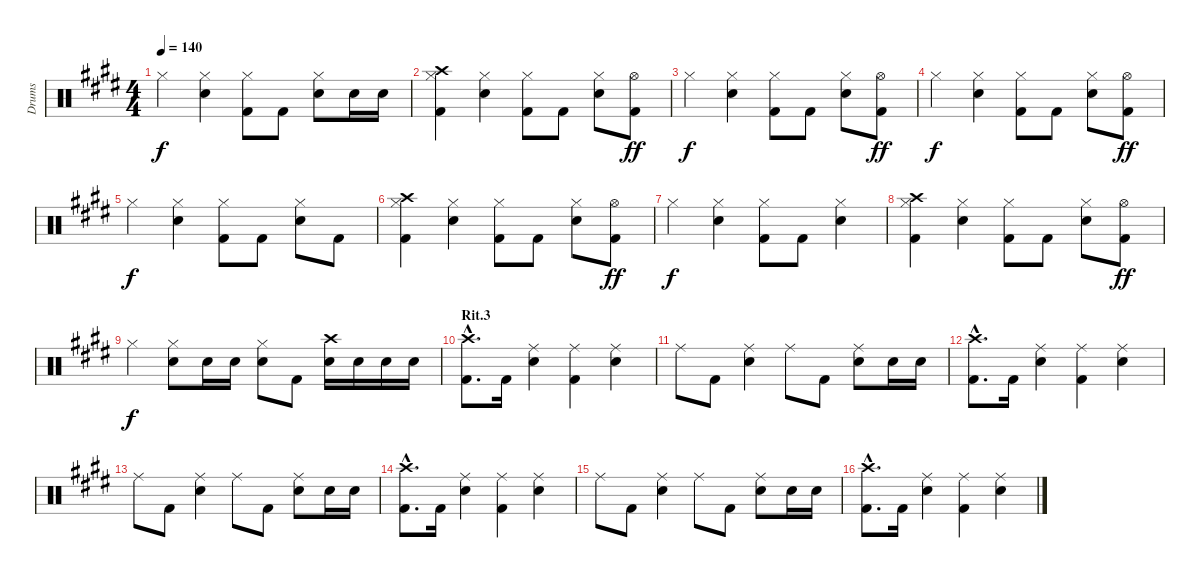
\track ("Drums" "Drums") {instrument percussion}
\staff {score}
\articulation defaults
\ts (4 4)
\tempo 140
\clef neutral
\ks c#minor "Hi-Hat (closed)".4{dy f}
("Hi-Hat (closed)" "Snare (hit) 2").4 ("Hi-Hat (closed)" "Kick (hit) 2").8 "Kick (hit) 2".8 ("Hi-Hat (closed)" "Snare (hit) 2").8 "Snare (hit) 2".16 "Snare (hit) 2".16 |
("Hi-Hat (closed)" "Crash high (hit)" "Kick (hit) 2").4 ("Hi-Hat (closed)" "Snare (hit) 2").4 ("Hi-Hat (closed)" "Kick (hit) 2").8 "Kick (hit) 2".8 ("Hi-Hat (closed)" "Snare (hit) 2").8 ("Hi-Hat (open)" "Kick (hit) 2").8{dy ff} |
"Hi-Hat (closed)".4{dy f} ("Hi-Hat (closed)" "Snare (hit) 2").4 ("Hi-Hat (closed)" "Kick (hit) 2").8 "Kick (hit) 2".8 ("Hi-Hat (closed)" "Snare (hit) 2").8 ("Hi-Hat (open)" "Kick (hit) 2").8{dy ff} |
"Hi-Hat (closed)".4{dy f} ("Hi-Hat (closed)" "Snare (hit) 2").4 ("Hi-Hat (closed)" "Kick (hit) 2").8 "Kick (hit) 2".8 ("Hi-Hat (closed)" "Snare (hit) 2").8 ("Hi-Hat (open)" "Kick (hit) 2").8{dy ff} |
"Hi-Hat (closed)".4{dy f} ("Hi-Hat (closed)" "Snare (hit) 2").4 ("Hi-Hat (closed)" "Kick (hit) 2").8 "Kick (hit) 2".8 ("Hi-Hat (closed)" "Snare (hit) 2").8 "Kick (hit) 2".8 |
("Hi-Hat (closed)" "Crash high (hit)" "Kick (hit) 2").4 ("Hi-Hat (closed)" "Snare (hit) 2").4 ("Hi-Hat (closed)" "Kick (hit) 2").8 "Kick (hit) 2".8 ("Hi-Hat (closed)" "Snare (hit) 2").8 ("Hi-Hat (open)" "Kick (hit) 2").8{dy ff} |
"Hi-Hat (closed)".4{dy f} ("Hi-Hat (closed)" "Snare (hit) 2").4 ("Hi-Hat (closed)" "Kick (hit) 2").8 "Kick (hit) 2".8 ("Hi-Hat (closed)" "Snare (hit) 2").4 |
("Hi-Hat (closed)" "Crash high (hit)" "Kick (hit) 2").4 ("Hi-Hat (closed)" "Snare (hit) 2").4 ("Hi-Hat (closed)" "Kick (hit) 2").8 "Kick (hit) 2".8 ("Hi-Hat (closed)" "Snare (hit) 2").8 ("Hi-Hat (open)" "Kick (hit) 2").8{dy ff} |
"Hi-Hat (closed)".4{dy f} ("Hi-Hat (closed)" "Snare (hit) 2").8 "Snare (hit) 2".16 "Snare (hit) 2".16 ("Hi-Hat (closed)" "Snare (hit) 2").8 "Kick (hit) 2".8 ("Crash high (hit)" "Snare (hit) 2").16 "Snare (hit) 2".16 "Snare (hit) 2".16 "Snare (hit) 2".16 |
\section ("" "Rit.3")
("Crash high (hit)" "Kick (hit) 2"{hac}).8{d} "Kick (hit) 2".16 ("Ride (middle)" "Snare (hit) 2").4 ("Ride (middle)" "Kick (hit) 2").4 ("Ride (middle)" "Snare (hit) 2").4 |
"Ride (middle)".8 "Kick (hit) 2".8 ("Ride (middle)" "Snare (hit) 2").4 "Ride (middle)".8 "Kick (hit) 2".8 ("Ride (middle)" "Snare (hit) 2").8 "Snare (hit) 2".16 "Snare (hit) 2".16 |
("Crash high (hit)" "Kick (hit) 2"{hac}).8{d} "Kick (hit) 2".16 ("Ride (middle)" "Snare (hit) 2").4 ("Ride (middle)" "Kick (hit) 2").4 ("Ride (middle)" "Snare (hit) 2").4 |
"Ride (middle)".8 "Kick (hit) 2".8 ("Ride (middle)" "Snare (hit) 2").4 "Ride (middle)".8 "Kick (hit) 2".8 ("Ride (middle)" "Snare (hit) 2").8 "Snare (hit) 2".16 "Snare (hit) 2".16 |
("Crash high (hit)"{hac} "Kick (hit) 2"{hac}).8{d} "Kick (hit) 2".16 ("Ride (middle)" "Snare (hit) 2").4 ("Ride (middle)" "Kick (hit) 2").4 ("Ride (middle)" "Snare (hit) 2").4 |
"Ride (middle)".8 "Kick (hit) 2".8 ("Ride (middle)" "Snare (hit) 2").4 "Ride (middle)".8 "Kick (hit) 2".8 ("Ride (middle)" "Snare (hit) 2").8 "Snare (hit) 2".16 "Snare (hit) 2".16 |
("Crash high (hit)" "Kick (hit) 2"{hac}).8{d} "Kick (hit) 2".16 ("Ride (middle)" "Snare (hit) 2").4 ("Ride (middle)" "Kick (hit) 2").4 ("Ride (middle)" "Snare (hit) 2").4
